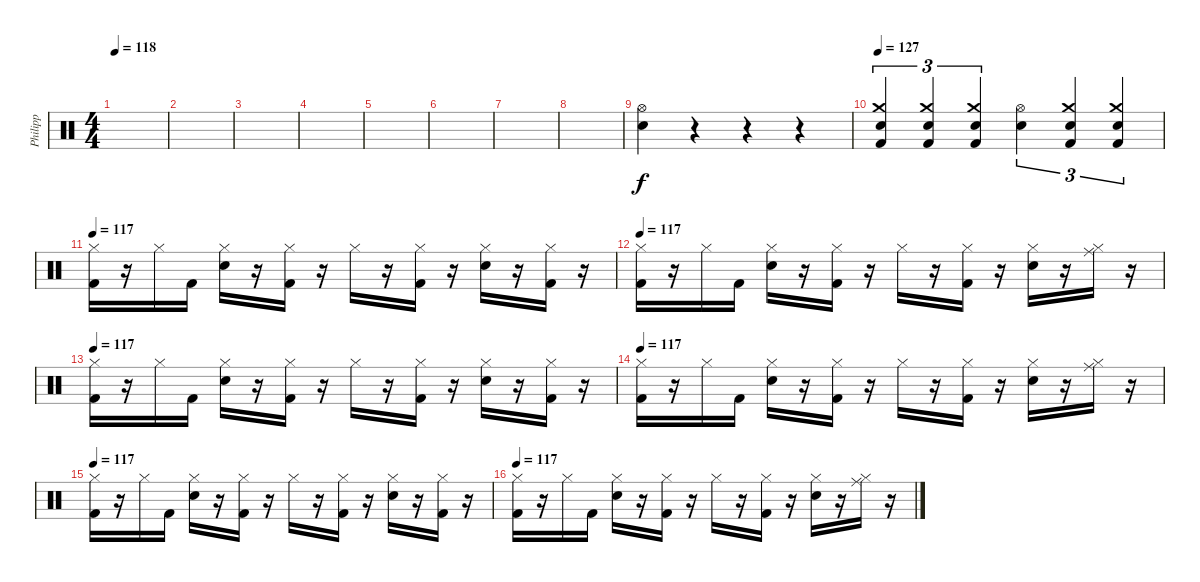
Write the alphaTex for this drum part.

\track ("Philipp" "Philipp") {instrument percussion}
\staff {score}
\articulation defaults
\ts (4 4)
\tempo 118
\clef neutral
\ks c
|
|
|
|
|
|
|
|
("Hi-Hat (open)" "Electric Snare (hit)").4 r.4 r.4 r.4 |
\tempo 127
("Crash medium (hit)" "Electric Snare (hit)" "Kick (hit) 2").4{tu (3 2)} ("Crash medium (hit)" "Electric Snare (hit)" "Kick (hit) 2").4{tu (3 2)} ("Crash medium (hit)" "Electric Snare (hit)" "Kick (hit) 2").4{tu (3 2)} ("Hi-Hat (open)" "Electric Snare (hit)").4{tu (3 2)} ("Crash medium (hit)" "Electric Snare (hit)" "Kick (hit) 2").4{tu (3 2)} ("Crash medium (hit)" "Electric Snare (hit)" "Kick (hit) 2").4{tu (3 2)} |
\tempo 117
("Hi-Hat (closed)" "Kick (hit) 2").16 r.16 "Hi-Hat (closed)".16 "Kick (hit) 2".16 ("Hi-Hat (closed)" "Electric Snare (hit)").16 r.16 ("Hi-Hat (closed)" "Kick (hit) 2").16 r.16 "Hi-Hat (closed)".16 r.16 ("Hi-Hat (closed)" "Kick (hit) 2").16 r.16 ("Hi-Hat (closed)" "Electric Snare (hit)").16 r.16 ("Hi-Hat (closed)" "Kick (hit) 2").16 r.16 |
\tempo 117
("Hi-Hat (closed)" "Kick (hit) 2").16 r.16 "Hi-Hat (closed)".16 "Kick (hit) 2".16 ("Hi-Hat (closed)" "Electric Snare (hit)").16 r.16 ("Hi-Hat (closed)" "Kick (hit) 2").16 r.16 "Hi-Hat (closed)".16 r.16 ("Hi-Hat (closed)" "Kick (hit) 2").16 r.16 ("Hi-Hat (closed)" "Electric Snare (hit)").16 r.16 ("Hi-Hat (closed)" "Ride (middle)").16 r.16 |
\tempo 117
("Hi-Hat (closed)" "Kick (hit) 2").16 r.16 "Hi-Hat (closed)".16 "Kick (hit) 2".16 ("Hi-Hat (closed)" "Electric Snare (hit)").16 r.16 ("Hi-Hat (closed)" "Kick (hit) 2").16 r.16 "Hi-Hat (closed)".16 r.16 ("Hi-Hat (closed)" "Kick (hit) 2").16 r.16 ("Hi-Hat (closed)" "Electric Snare (hit)").16 r.16 ("Hi-Hat (closed)" "Kick (hit) 2").16 r.16 |
\tempo 117
("Hi-Hat (closed)" "Kick (hit) 2").16 r.16 "Hi-Hat (closed)".16 "Kick (hit) 2".16 ("Hi-Hat (closed)" "Electric Snare (hit)").16 r.16 ("Hi-Hat (closed)" "Kick (hit) 2").16 r.16 "Hi-Hat (closed)".16 r.16 ("Hi-Hat (closed)" "Kick (hit) 2").16 r.16 ("Hi-Hat (closed)" "Electric Snare (hit)").16 r.16 ("Hi-Hat (closed)" "Ride (middle)").16 r.16 |
\tempo 117
("Hi-Hat (closed)" "Kick (hit) 2").16 r.16 "Hi-Hat (closed)".16 "Kick (hit) 2".16 ("Hi-Hat (closed)" "Electric Snare (hit)").16 r.16 ("Hi-Hat (closed)" "Kick (hit) 2").16 r.16 "Hi-Hat (closed)".16 r.16 ("Hi-Hat (closed)" "Kick (hit) 2").16 r.16 ("Hi-Hat (closed)" "Electric Snare (hit)").16 r.16 ("Hi-Hat (closed)" "Kick (hit) 2").16 r.16 |
\tempo 117
("Hi-Hat (closed)" "Kick (hit) 2").16 r.16 "Hi-Hat (closed)".16 "Kick (hit) 2".16 ("Hi-Hat (closed)" "Electric Snare (hit)").16 r.16 ("Hi-Hat (closed)" "Kick (hit) 2").16 r.16 "Hi-Hat (closed)".16 r.16 ("Hi-Hat (closed)" "Kick (hit) 2").16 r.16 ("Hi-Hat (closed)" "Electric Snare (hit)").16 r.16 ("Hi-Hat (closed)" "Ride (middle)").16 r.16
